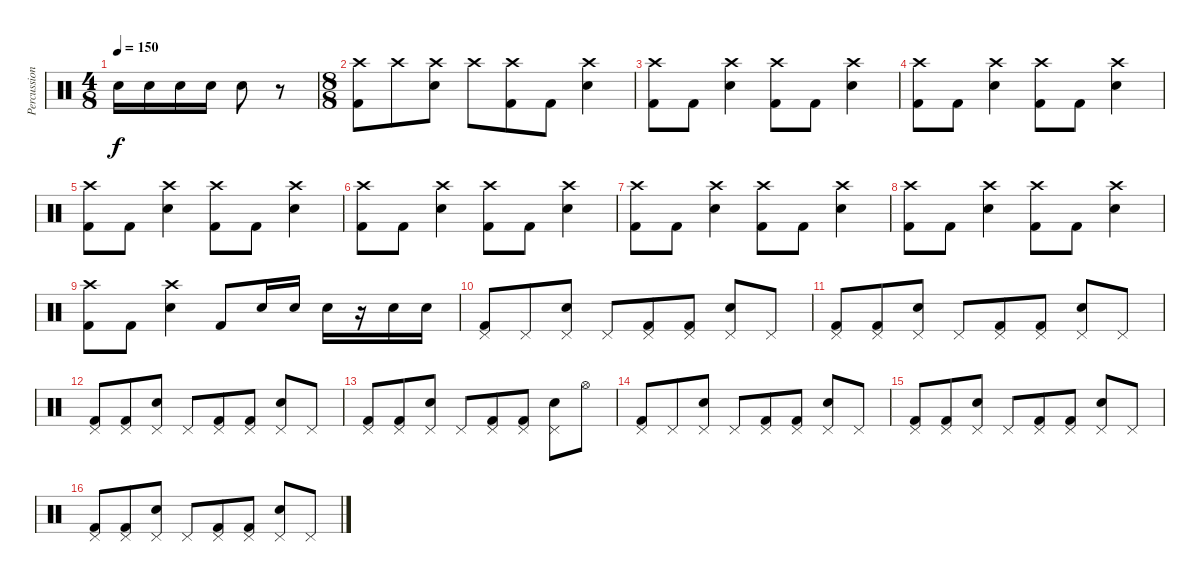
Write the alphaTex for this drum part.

\track ("Percussion" "Percussion") {instrument percussion}
\staff {score}
\articulation defaults
\ts (4 8)
\tempo 150
\clef neutral
\ks c "Electric Snare (hit)".16{dy f} "Electric Snare (hit)".16 "Snare (hit) 2".16 "Snare (hit) 2".16 "Snare (hit) 2".8
r.8 |
\ts (8 8)
("Crash high (hit)" "Kick (hit) 2").8 "Crash high (hit)".8 ("Crash high (hit)" "Snare (hit) 2").8 "Crash high (hit)".8 ("Crash high (hit)" "Kick (hit) 2").8 "Kick (hit) 2".8 ("Crash high (hit)" "Snare (hit) 2").4 |
("Crash high (hit)" "Kick (hit) 2").8 "Kick (hit) 2".8 ("Crash high (hit)" "Snare (hit) 2").4 ("Crash high (hit)" "Kick (hit) 2").8 "Kick (hit) 2".8 ("Crash high (hit)" "Snare (hit) 2").4 |
("Crash high (hit)" "Kick (hit) 2").8 "Kick (hit) 2".8 ("Crash high (hit)" "Snare (hit) 2").4 ("Crash high (hit)" "Kick (hit) 2").8 "Kick (hit) 2".8 ("Crash high (hit)" "Snare (hit) 2").4 |
("Crash high (hit)" "Kick (hit) 2").8 "Kick (hit) 2".8 ("Crash high (hit)" "Snare (hit) 2").4 ("Crash high (hit)" "Kick (hit) 2").8 "Kick (hit) 2".8 ("Crash high (hit)" "Snare (hit) 2").4 |
("Crash high (hit)" "Kick (hit) 2").8 "Kick (hit) 2".8 ("Crash high (hit)" "Snare (hit) 2").4 ("Crash high (hit)" "Kick (hit) 2").8 "Kick (hit) 2".8 ("Crash high (hit)" "Snare (hit) 2").4 |
("Crash high (hit)" "Kick (hit) 2").8 "Kick (hit) 2".8 ("Crash high (hit)" "Snare (hit) 2").4 ("Crash high (hit)" "Kick (hit) 2").8 "Kick (hit) 2".8 ("Crash high (hit)" "Snare (hit) 2").4 |
("Crash high (hit)" "Kick (hit) 2").8 "Kick (hit) 2".8 ("Crash high (hit)" "Snare (hit) 2").4 ("Crash high (hit)" "Kick (hit) 2").8 "Kick (hit) 2".8 ("Crash high (hit)" "Snare (hit) 2").4 |
("Crash high (hit)" "Kick (hit) 2").8 "Kick (hit) 2".8 ("Crash high (hit)" "Snare (hit) 2").4 "Kick (hit) 2".8 "Snare (hit) 2".16 "Snare (hit) 2".16 "Snare (hit) 2".16 r.16 "Snare (hit) 2".16 "Snare (hit) 2".16 |
("Pedal Hi-Hat (hit)" "Kick (hit) 2").8 "Pedal Hi-Hat (hit)".8 ("Pedal Hi-Hat (hit)" "Snare (hit) 2").8 "Pedal Hi-Hat (hit)".8 ("Pedal Hi-Hat (hit)" "Kick (hit) 2").8 ("Pedal Hi-Hat (hit)" "Kick (hit) 2").8 ("Pedal Hi-Hat (hit)" "Snare (hit) 2").8 "Pedal Hi-Hat (hit)".8 |
("Pedal Hi-Hat (hit)" "Kick (hit) 2").8 ("Pedal Hi-Hat (hit)" "Kick (hit) 2").8 ("Pedal Hi-Hat (hit)" "Snare (hit) 2").8 "Pedal Hi-Hat (hit)".8 ("Pedal Hi-Hat (hit)" "Kick (hit) 2").8 ("Pedal Hi-Hat (hit)" "Kick (hit) 2").8 ("Pedal Hi-Hat (hit)" "Snare (hit) 2").8 "Pedal Hi-Hat (hit)".8 |
("Pedal Hi-Hat (hit)" "Kick (hit) 2").8 ("Pedal Hi-Hat (hit)" "Kick (hit) 2").8 ("Pedal Hi-Hat (hit)" "Snare (hit) 2").8 "Pedal Hi-Hat (hit)".8 ("Pedal Hi-Hat (hit)" "Kick (hit) 2").8 ("Pedal Hi-Hat (hit)" "Kick (hit) 2").8 ("Pedal Hi-Hat (hit)" "Snare (hit) 2").8 "Pedal Hi-Hat (hit)".8 |
("Pedal Hi-Hat (hit)" "Kick (hit) 2").8 ("Pedal Hi-Hat (hit)" "Kick (hit) 2").8 ("Pedal Hi-Hat (hit)" "Snare (hit) 2").8 "Pedal Hi-Hat (hit)".8 ("Pedal Hi-Hat (hit)" "Kick (hit) 2").8 ("Pedal Hi-Hat (hit)" "Kick (hit) 2").8 ("Pedal Hi-Hat (hit)" "Snare (hit) 2").8 "Hi-Hat (open)".8 |
("Pedal Hi-Hat (hit)" "Kick (hit) 2").8 "Pedal Hi-Hat (hit)".8 ("Pedal Hi-Hat (hit)" "Snare (hit) 2").8 "Pedal Hi-Hat (hit)".8 ("Pedal Hi-Hat (hit)" "Kick (hit) 2").8 ("Pedal Hi-Hat (hit)" "Kick (hit) 2").8 ("Pedal Hi-Hat (hit)" "Snare (hit) 2").8 "Pedal Hi-Hat (hit)".8 |
("Pedal Hi-Hat (hit)" "Kick (hit) 2").8 ("Pedal Hi-Hat (hit)" "Kick (hit) 2").8 ("Pedal Hi-Hat (hit)" "Snare (hit) 2").8 "Pedal Hi-Hat (hit)".8 ("Pedal Hi-Hat (hit)" "Kick (hit) 2").8 ("Pedal Hi-Hat (hit)" "Kick (hit) 2").8 ("Pedal Hi-Hat (hit)" "Snare (hit) 2").8 "Pedal Hi-Hat (hit)".8 |
("Pedal Hi-Hat (hit)" "Kick (hit) 2").8 ("Pedal Hi-Hat (hit)" "Kick (hit) 2").8 ("Pedal Hi-Hat (hit)" "Snare (hit) 2").8 "Pedal Hi-Hat (hit)".8 ("Pedal Hi-Hat (hit)" "Kick (hit) 2").8 ("Pedal Hi-Hat (hit)" "Kick (hit) 2").8 ("Pedal Hi-Hat (hit)" "Snare (hit) 2").8 "Pedal Hi-Hat (hit)".8
